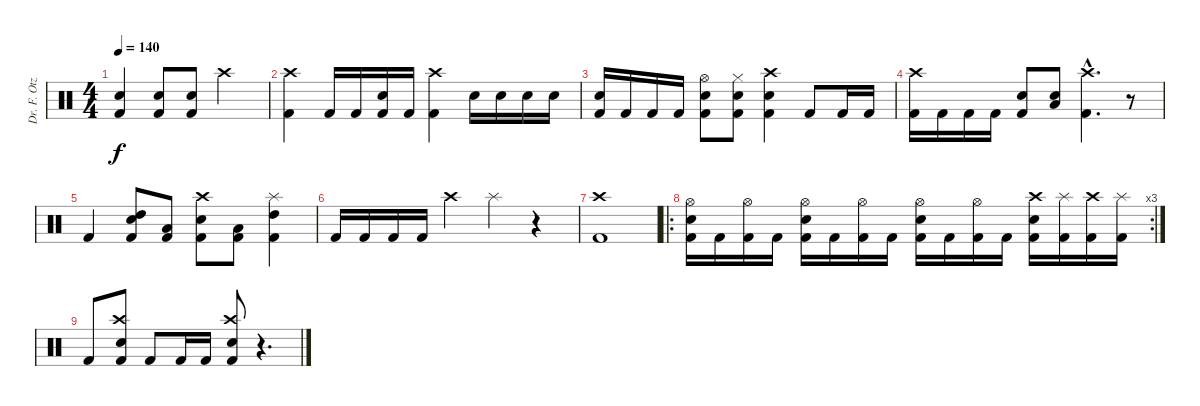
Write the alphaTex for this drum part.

\track ("Dr. F. Otze" "Dr. F. Otz") {instrument percussion}
\staff {score}
\articulation defaults
\ts (4 4)
\tempo 140
\clef neutral
\ks c
("Snare (hit) 2" "Kick (hit) 2").4{dy f} ("Snare (hit) 2" "Kick (hit) 2").8 ("Snare (hit) 2" "Kick (hit) 2").8 "Crash high (hit)".2 |
("Crash high (hit)" "Kick (hit) 2").4 "Kick (hit) 2".16 "Kick (hit) 2".16 ("Snare (hit) 2" "Kick (hit) 2").16 "Kick (hit) 2".16 ("Crash high (hit)" "Kick (hit) 2").4 "Snare (hit) 2".16 "Snare (hit) 2".16 "Snare (hit) 2".16 "Snare (hit) 2".16 |
("Snare (hit) 2" "Kick (hit) 2").16 "Kick (hit) 2".16 "Kick (hit) 2".16 "Kick (hit) 2".16 ("Hi-Hat (open)" "Snare (hit) 2" "Kick (hit) 2").8 ("Hi-Hat (closed)" "Snare (hit) 2" "Kick (hit) 2").8 ("Crash high (hit)" "Snare (hit) 2" "Kick (hit) 2").4 "Kick (hit) 2".8 "Kick (hit) 2".16 "Kick (hit) 2".16 |
("Crash high (hit)" "Kick (hit) 2").16 "Kick (hit) 2".16 "Kick (hit) 2".16 "Kick (hit) 2".16 ("Snare (hit) 2" "Kick (hit) 2").8 ("Snare (hit) 2" "Low Floor Tom (hit)").8 ("Crash high (hit)"{hac} "Kick (hit) 2"{hac}).4{d} r.8 |
"Kick (hit) 2".4 ("High Tom (hit)" "Snare (hit) 2" "Kick (hit) 2").8 ("Low Floor Tom (hit)" "Kick (hit) 2").8 ("Crash high (hit)" "Snare (hit) 2" "Kick (hit) 2").8 ("Low Floor Tom (hit)" "Kick (hit) 2").8 ("Splash (hit)" "High Tom (hit)" "Kick (hit) 2").4 |
"Kick (hit) 2".16 "Kick (hit) 2".16 "Kick (hit) 2".16 "Kick (hit) 2".16 "Crash high (hit)".4 "Splash (hit)".4 r.4 |
("Crash high (hit)" "Kick (hit) 2").1 |
\ro
\rc 3
("Hi-Hat (open)" "Snare (hit) 2" "Kick (hit) 2").16 "Kick (hit) 2".16 ("Hi-Hat (open)" "Kick (hit) 2").16 "Kick (hit) 2".16 ("Hi-Hat (open)" "Snare (hit) 2" "Kick (hit) 2").16 "Kick (hit) 2".16 ("Hi-Hat (open)" "Kick (hit) 2").16 "Kick (hit) 2".16 ("Hi-Hat (open)" "Snare (hit) 2" "Kick (hit) 2").16 "Kick (hit) 2".16 ("Hi-Hat (open)" "Kick (hit) 2").16 "Kick (hit) 2".16 ("Crash high (hit)" "Snare (hit) 2" "Kick (hit) 2").16 ("Splash (hit)" "Kick (hit) 2").16 ("Crash high (hit)" "Kick (hit) 2").16 ("Splash (hit)" "Kick (hit) 2").16 |
"Kick (hit) 2".8 ("Crash high (hit)" "Electric Snare (hit)" "Kick (hit) 2").8 "Kick (hit) 2".8 "Kick (hit) 2".16 "Kick (hit) 2".16 ("Crash high (hit)" "Electric Snare (hit)" "Kick (hit) 2").8 r.4{d}
